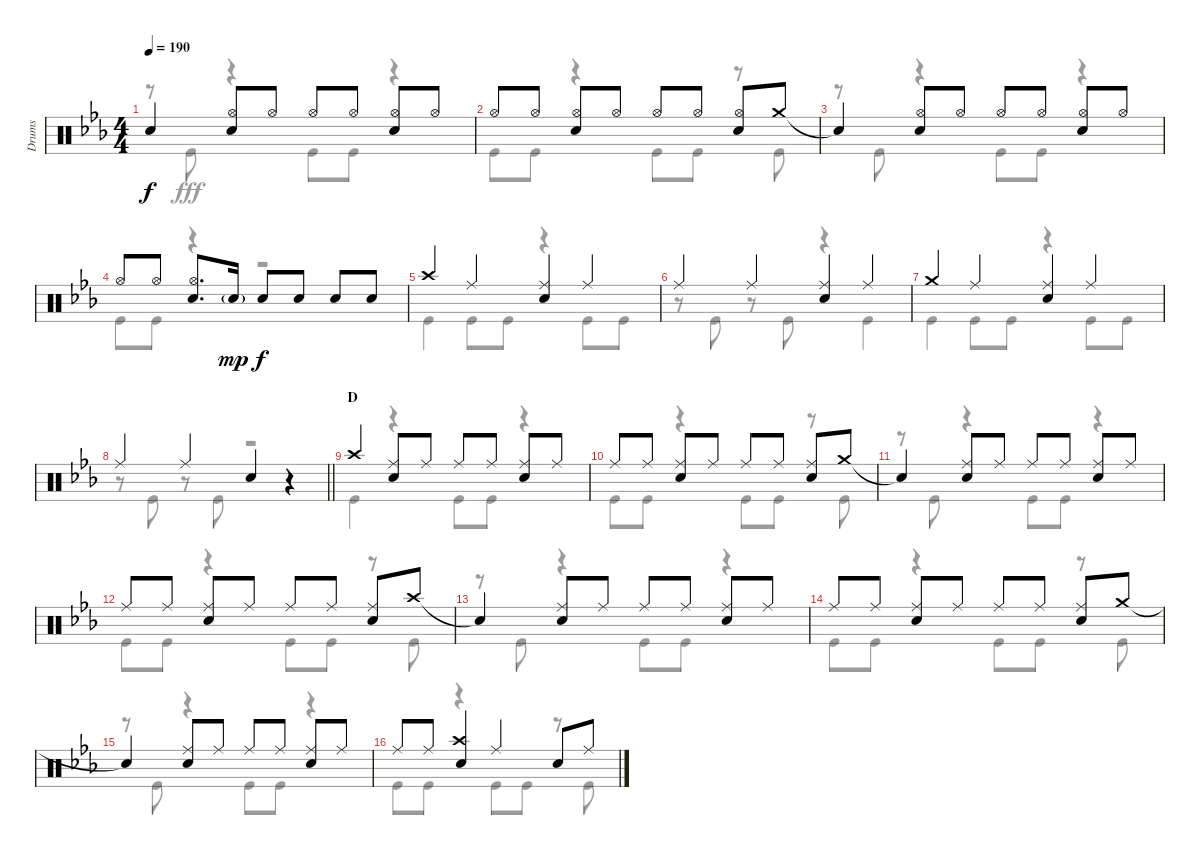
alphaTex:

\track ("Drums" "Drums") {instrument percussion}
\staff {score}
\articulation defaults
\voice
\ts (4 4)
\tempo 190
\clef neutral
\ks eb "Snare (hit)"{t}.4{dy f}
("Hi-Hat (open)" "Snare (hit) 2").8 "Hi-Hat (open)".8 "Hi-Hat (open)".8 "Hi-Hat (open)".8 ("Hi-Hat (open)" "Snare (hit) 2").8 "Hi-Hat (open)".8 |
"Hi-Hat (open)".8 "Hi-Hat (open)".8 ("Hi-Hat (open)" "Snare (hit) 2").8 "Hi-Hat (open)".8 "Hi-Hat (open)".8 "Hi-Hat (open)".8 ("Hi-Hat (open)" "Snare (hit) 2").8 "Crash medium (hit)".8 |
"Snare (hit)"{t}.4 ("Hi-Hat (open)" "Snare (hit) 2").8 "Hi-Hat (open)".8 "Hi-Hat (open)".8 "Hi-Hat (open)".8 ("Hi-Hat (open)" "Snare (hit) 2").8 "Hi-Hat (open)".8 |
"Hi-Hat (open)".8 "Hi-Hat (open)".8 ("Hi-Hat (open)" "Snare (hit) 2").8{d} "Snare (hit) 2"{g}.16{dy mp} "Snare (hit) 2".8{dy f} "Snare (hit) 2".8 "Snare (hit) 2".8 "Snare (hit) 2".8 |
"Crash high (hit)".4 "Ride (middle)".4 ("Ride (middle)" "Snare (hit) 2").4 "Ride (middle)".4 |
"Ride (middle)".4 "Ride (middle)".4 ("Ride (middle)" "Snare (hit) 2").4 "Ride (middle)".4 |
"Crash medium (hit)".4 "Ride (middle)".4 ("Ride (middle)" "Snare (hit) 2").4 "Ride (middle)".4 |
\barLineRight lightlight "Ride (middle)".4 "Ride (middle)".4 "Snare (hit) 2".4
r.4 |
\section ("" "D")
"Crash high (hit)".4 ("Ride (middle)" "Snare (hit) 2").8 "Ride (middle)".8 "Ride (middle)".8 "Ride (middle)".8 ("Ride (middle)" "Snare (hit) 2").8 "Ride (middle)".8 |
"Ride (middle)".8 "Ride (middle)".8 ("Ride (middle)" "Snare (hit) 2").8 "Ride (middle)".8 "Ride (middle)".8 "Ride (middle)".8 ("Ride (middle)" "Snare (hit) 2").8 "Crash medium (hit)".8 |
"Snare (hit)"{t}.4 ("Ride (middle)" "Snare (hit) 2").8 "Ride (middle)".8 "Ride (middle)".8 "Ride (middle)".8 ("Ride (middle)" "Snare (hit) 2").8 "Ride (middle)".8 |
"Ride (middle)".8 "Ride (middle)".8 ("Ride (middle)" "Snare (hit) 2").8 "Ride (middle)".8 "Ride (middle)".8 "Ride (middle)".8 ("Ride (middle)" "Snare (hit) 2").8 "Crash high (hit)".8 |
"Snare (hit)"{t}.4 ("Ride (middle)" "Snare (hit) 2").8 "Ride (middle)".8 "Ride (middle)".8 "Ride (middle)".8 ("Ride (middle)" "Snare (hit) 2").8 "Ride (middle)".8 |
"Ride (middle)".8 "Ride (middle)".8 ("Ride (middle)" "Snare (hit) 2").8 "Ride (middle)".8 "Ride (middle)".8 "Ride (middle)".8 ("Ride (middle)" "Snare (hit) 2").8 "Crash medium (hit)".8 |
"Snare (hit)"{t}.4 ("Ride (middle)" "Snare (hit) 2").8 "Ride (middle)".8 "Ride (middle)".8 "Ride (middle)".8 ("Ride (middle)" "Snare (hit) 2").8 "Ride (middle)".8 |
"Ride (middle)".8 "Ride (middle)".8 ("Crash high (hit)" "Snare (hit) 2").4 "Ride (middle)".4 "Snare (hit) 2".8 "Ride (middle)".8
\voice
\clef neutral
\ottava regular
\simile none
\ks eb
r.8{dy fff} "Kick (hit)".8 r.4 "Kick (hit)".8 "Kick (hit)".8 r.4 |
"Kick (hit)".8 "Kick (hit)".8 r.4 "Kick (hit)".8 "Kick (hit)".8 r.8 "Kick (hit)".8 |
r.8 "Kick (hit)".8 r.4 "Kick (hit)".8 "Kick (hit)".8 r.4 |
"Kick (hit)".8 "Kick (hit)".8 r.4 r.2 |
"Kick (hit)".4 "Kick (hit)".8 "Kick (hit)".8 r.4 "Kick (hit)".8 "Kick (hit)".8 |
r.8 "Kick (hit)".8 r.8 "Kick (hit)".8 r.4 "Kick (hit)".4 |
"Kick (hit)".4 "Kick (hit)".8 "Kick (hit)".8 r.4 "Kick (hit)".8 "Kick (hit)".8 |
\barLineRight lightlight
r.8 "Kick (hit)".8 r.8 "Kick (hit)".8 r.2 |
"Kick (hit)".4 r.4 "Kick (hit)".8 "Kick (hit)".8 r.4 |
"Kick (hit)".8 "Kick (hit)".8 r.4 "Kick (hit)".8 "Kick (hit)".8 r.8 "Kick (hit)".8 |
r.8 "Kick (hit)".8 r.4 "Kick (hit)".8 "Kick (hit)".8 r.4 |
"Kick (hit)".8 "Kick (hit)".8 r.4 "Kick (hit)".8 "Kick (hit)".8 r.8 "Kick (hit)".8 |
r.8 "Kick (hit)".8 r.4 "Kick (hit)".8 "Kick (hit)".8 r.4 |
"Kick (hit)".8 "Kick (hit)".8 r.4 "Kick (hit)".8 "Kick (hit)".8 r.8 "Kick (hit)".8 |
r.8 "Kick (hit)".8 r.4 "Kick (hit)".8 "Kick (hit)".8 r.4 |
"Kick (hit)".8 "Kick (hit)".8 r.4 "Kick (hit)".8 "Kick (hit)".8 r.8 "Kick (hit)".8
